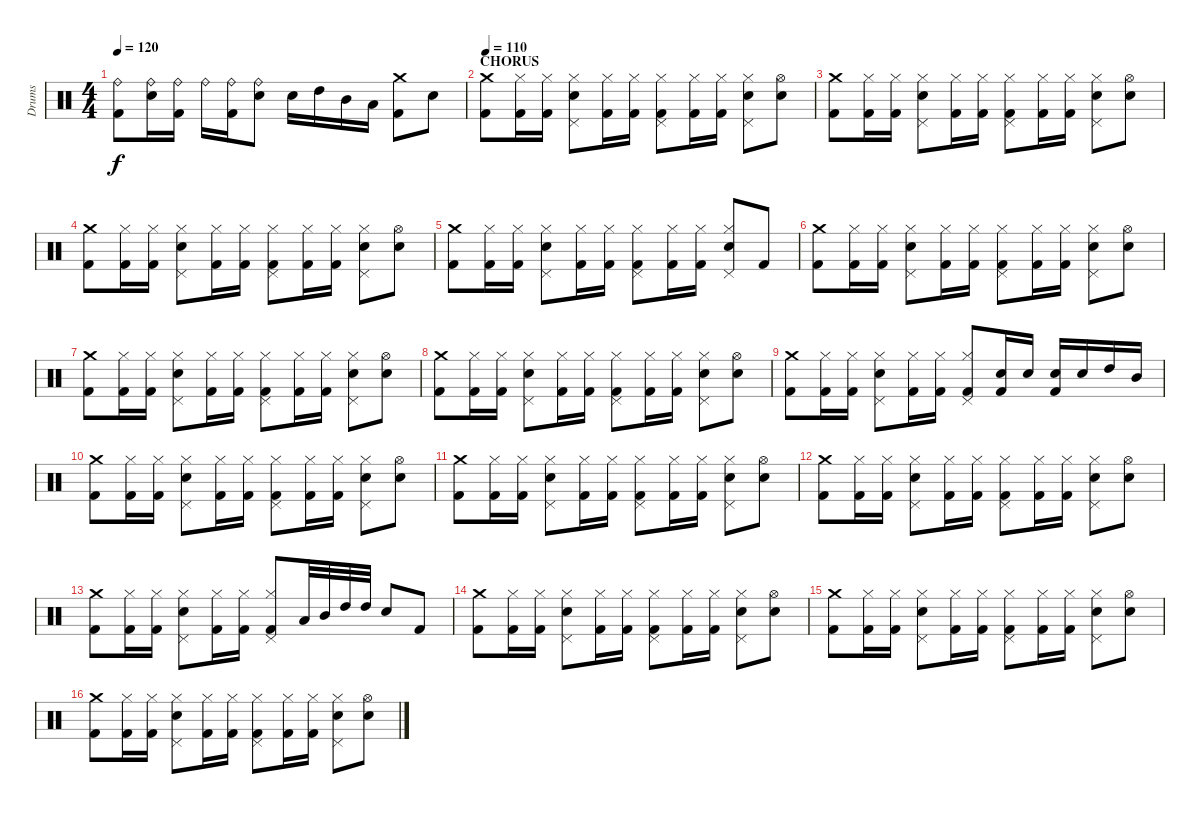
\track ("Drums" "Drums") {instrument percussion}
\staff {score}
\articulation defaults
\ts (4 4)
\tempo 120
\clef neutral
\ks c
("Kick (hit) 2" "Ride (bell)").8{dy f} ("Snare (hit) 2" "Ride (bell)").16 ("Kick (hit) 2" "Ride (bell)").16 "Ride (bell)".16 ("Kick (hit) 2" "Ride (bell)").16 ("Snare (hit) 2" "Ride (bell)").8 "Snare (hit) 2".16 "High Tom (hit)".16 "Mid Tom (hit)".16 "Low Tom (hit)".16 ("Crash medium (hit)" "Kick (hit) 2").8 "Snare (hit) 2".8 |
\section ("" "CHORUS")
\tempo 110
("Crash medium (hit)" "Kick (hit) 2").8 ("Kick (hit) 2" "Hi-Hat (closed)").16 ("Kick (hit) 2" "Hi-Hat (closed)").16 ("Snare (hit) 2" "Pedal Hi-Hat (hit)" "Hi-Hat (closed)").8 ("Kick (hit) 2" "Hi-Hat (closed)").16 ("Kick (hit) 2" "Hi-Hat (closed)").16 ("Kick (hit) 2" "Pedal Hi-Hat (hit)" "Hi-Hat (closed)").8 ("Kick (hit) 2" "Hi-Hat (closed)").16 ("Kick (hit) 2" "Hi-Hat (closed)").16 ("Snare (hit) 2" "Pedal Hi-Hat (hit)" "Hi-Hat (closed)").8 ("Snare (hit) 2" "Hi-Hat (open)").8 |
("Crash medium (hit)" "Kick (hit) 2").8 ("Kick (hit) 2" "Hi-Hat (closed)").16 ("Kick (hit) 2" "Hi-Hat (closed)").16 ("Snare (hit) 2" "Pedal Hi-Hat (hit)" "Hi-Hat (closed)").8 ("Kick (hit) 2" "Hi-Hat (closed)").16 ("Kick (hit) 2" "Hi-Hat (closed)").16 ("Kick (hit) 2" "Pedal Hi-Hat (hit)" "Hi-Hat (closed)").8 ("Kick (hit) 2" "Hi-Hat (closed)").16 ("Kick (hit) 2" "Hi-Hat (closed)").16 ("Snare (hit) 2" "Pedal Hi-Hat (hit)" "Hi-Hat (closed)").8 ("Snare (hit) 2" "Hi-Hat (open)").8 |
("Crash medium (hit)" "Kick (hit) 2").8 ("Kick (hit) 2" "Hi-Hat (closed)").16 ("Kick (hit) 2" "Hi-Hat (closed)").16 ("Snare (hit) 2" "Pedal Hi-Hat (hit)" "Hi-Hat (closed)").8 ("Kick (hit) 2" "Hi-Hat (closed)").16 ("Kick (hit) 2" "Hi-Hat (closed)").16 ("Kick (hit) 2" "Pedal Hi-Hat (hit)" "Hi-Hat (closed)").8 ("Kick (hit) 2" "Hi-Hat (closed)").16 ("Kick (hit) 2" "Hi-Hat (closed)").16 ("Snare (hit) 2" "Pedal Hi-Hat (hit)" "Hi-Hat (closed)").8 ("Snare (hit) 2" "Hi-Hat (open)").8 |
("Crash medium (hit)" "Kick (hit) 2").8 ("Kick (hit) 2" "Hi-Hat (closed)").16 ("Kick (hit) 2" "Hi-Hat (closed)").16 ("Snare (hit) 2" "Pedal Hi-Hat (hit)" "Hi-Hat (closed)").8 ("Kick (hit) 2" "Hi-Hat (closed)").16 ("Kick (hit) 2" "Hi-Hat (closed)").16 ("Kick (hit) 2" "Pedal Hi-Hat (hit)" "Hi-Hat (closed)").8 ("Kick (hit) 2" "Hi-Hat (closed)").16 ("Kick (hit) 2" "Hi-Hat (closed)").16 ("Snare (hit) 2" "Pedal Hi-Hat (hit)" "Hi-Hat (closed)").8 "Kick (hit) 2".8 |
("Crash medium (hit)" "Kick (hit) 2").8 ("Kick (hit) 2" "Hi-Hat (closed)").16 ("Kick (hit) 2" "Hi-Hat (closed)").16 ("Snare (hit) 2" "Pedal Hi-Hat (hit)" "Hi-Hat (closed)").8 ("Kick (hit) 2" "Hi-Hat (closed)").16 ("Kick (hit) 2" "Hi-Hat (closed)").16 ("Kick (hit) 2" "Pedal Hi-Hat (hit)" "Hi-Hat (closed)").8 ("Kick (hit) 2" "Hi-Hat (closed)").16 ("Kick (hit) 2" "Hi-Hat (closed)").16 ("Snare (hit) 2" "Pedal Hi-Hat (hit)" "Hi-Hat (closed)").8 ("Snare (hit) 2" "Hi-Hat (open)").8 |
("Crash medium (hit)" "Kick (hit) 2").8 ("Kick (hit) 2" "Hi-Hat (closed)").16 ("Kick (hit) 2" "Hi-Hat (closed)").16 ("Snare (hit) 2" "Pedal Hi-Hat (hit)" "Hi-Hat (closed)").8 ("Kick (hit) 2" "Hi-Hat (closed)").16 ("Kick (hit) 2" "Hi-Hat (closed)").16 ("Kick (hit) 2" "Pedal Hi-Hat (hit)" "Hi-Hat (closed)").8 ("Kick (hit) 2" "Hi-Hat (closed)").16 ("Kick (hit) 2" "Hi-Hat (closed)").16 ("Snare (hit) 2" "Pedal Hi-Hat (hit)" "Hi-Hat (closed)").8 ("Snare (hit) 2" "Hi-Hat (open)").8 |
("Crash medium (hit)" "Kick (hit) 2").8 ("Kick (hit) 2" "Hi-Hat (closed)").16 ("Kick (hit) 2" "Hi-Hat (closed)").16 ("Snare (hit) 2" "Pedal Hi-Hat (hit)" "Hi-Hat (closed)").8 ("Kick (hit) 2" "Hi-Hat (closed)").16 ("Kick (hit) 2" "Hi-Hat (closed)").16 ("Kick (hit) 2" "Pedal Hi-Hat (hit)" "Hi-Hat (closed)").8 ("Kick (hit) 2" "Hi-Hat (closed)").16 ("Kick (hit) 2" "Hi-Hat (closed)").16 ("Snare (hit) 2" "Pedal Hi-Hat (hit)" "Hi-Hat (closed)").8 ("Snare (hit) 2" "Hi-Hat (open)").8 |
("Crash medium (hit)" "Kick (hit) 2").8 ("Kick (hit) 2" "Hi-Hat (closed)").16 ("Kick (hit) 2" "Hi-Hat (closed)").16 ("Snare (hit) 2" "Pedal Hi-Hat (hit)" "Hi-Hat (closed)").8 ("Kick (hit) 2" "Hi-Hat (closed)").16 ("Kick (hit) 2" "Hi-Hat (closed)").16 ("Kick (hit) 2" "Pedal Hi-Hat (hit)" "Hi-Hat (closed)").8 ("Snare (hit) 2" "Kick (hit) 2").16 "Snare (hit) 2".16 ("Snare (hit) 2" "Kick (hit) 2").16 "Snare (hit) 2".16 "High Tom (hit)".16 "Mid Tom (hit)".16 |
("Crash medium (hit)" "Kick (hit) 2").8 ("Kick (hit) 2" "Hi-Hat (closed)").16 ("Kick (hit) 2" "Hi-Hat (closed)").16 ("Snare (hit) 2" "Pedal Hi-Hat (hit)" "Hi-Hat (closed)").8 ("Kick (hit) 2" "Hi-Hat (closed)").16 ("Kick (hit) 2" "Hi-Hat (closed)").16 ("Kick (hit) 2" "Pedal Hi-Hat (hit)" "Hi-Hat (closed)").8 ("Kick (hit) 2" "Hi-Hat (closed)").16 ("Kick (hit) 2" "Hi-Hat (closed)").16 ("Snare (hit) 2" "Pedal Hi-Hat (hit)" "Hi-Hat (closed)").8 ("Snare (hit) 2" "Hi-Hat (open)").8 |
("Crash medium (hit)" "Kick (hit) 2").8 ("Kick (hit) 2" "Hi-Hat (closed)").16 ("Kick (hit) 2" "Hi-Hat (closed)").16 ("Snare (hit) 2" "Pedal Hi-Hat (hit)" "Hi-Hat (closed)").8 ("Kick (hit) 2" "Hi-Hat (closed)").16 ("Kick (hit) 2" "Hi-Hat (closed)").16 ("Kick (hit) 2" "Pedal Hi-Hat (hit)" "Hi-Hat (closed)").8 ("Kick (hit) 2" "Hi-Hat (closed)").16 ("Kick (hit) 2" "Hi-Hat (closed)").16 ("Snare (hit) 2" "Pedal Hi-Hat (hit)" "Hi-Hat (closed)").8 ("Snare (hit) 2" "Hi-Hat (open)").8 |
("Crash medium (hit)" "Kick (hit) 2").8 ("Kick (hit) 2" "Hi-Hat (closed)").16 ("Kick (hit) 2" "Hi-Hat (closed)").16 ("Snare (hit) 2" "Pedal Hi-Hat (hit)" "Hi-Hat (closed)").8 ("Kick (hit) 2" "Hi-Hat (closed)").16 ("Kick (hit) 2" "Hi-Hat (closed)").16 ("Kick (hit) 2" "Pedal Hi-Hat (hit)" "Hi-Hat (closed)").8 ("Kick (hit) 2" "Hi-Hat (closed)").16 ("Kick (hit) 2" "Hi-Hat (closed)").16 ("Snare (hit) 2" "Pedal Hi-Hat (hit)" "Hi-Hat (closed)").8 ("Snare (hit) 2" "Hi-Hat (open)").8 |
("Crash medium (hit)" "Kick (hit) 2").8 ("Kick (hit) 2" "Hi-Hat (closed)").16 ("Kick (hit) 2" "Hi-Hat (closed)").16 ("Snare (hit) 2" "Pedal Hi-Hat (hit)" "Hi-Hat (closed)").8 ("Kick (hit) 2" "Hi-Hat (closed)").16 ("Kick (hit) 2" "Hi-Hat (closed)").16 ("Kick (hit) 2" "Pedal Hi-Hat (hit)" "Hi-Hat (closed)").8 "Low Tom (hit)".32 "Mid Tom (hit)".32 "High Tom (hit)".32 "High Tom (hit)".32 "Snare (hit) 2".8 "Kick (hit) 2".8 |
("Crash medium (hit)" "Kick (hit) 2").8 ("Kick (hit) 2" "Hi-Hat (closed)").16 ("Kick (hit) 2" "Hi-Hat (closed)").16 ("Snare (hit) 2" "Pedal Hi-Hat (hit)" "Hi-Hat (closed)").8 ("Kick (hit) 2" "Hi-Hat (closed)").16 ("Kick (hit) 2" "Hi-Hat (closed)").16 ("Kick (hit) 2" "Pedal Hi-Hat (hit)" "Hi-Hat (closed)").8 ("Kick (hit) 2" "Hi-Hat (closed)").16 ("Kick (hit) 2" "Hi-Hat (closed)").16 ("Snare (hit) 2" "Pedal Hi-Hat (hit)" "Hi-Hat (closed)").8 ("Snare (hit) 2" "Hi-Hat (open)").8 |
("Crash medium (hit)" "Kick (hit) 2").8 ("Kick (hit) 2" "Hi-Hat (closed)").16 ("Kick (hit) 2" "Hi-Hat (closed)").16 ("Snare (hit) 2" "Pedal Hi-Hat (hit)" "Hi-Hat (closed)").8 ("Kick (hit) 2" "Hi-Hat (closed)").16 ("Kick (hit) 2" "Hi-Hat (closed)").16 ("Kick (hit) 2" "Pedal Hi-Hat (hit)" "Hi-Hat (closed)").8 ("Kick (hit) 2" "Hi-Hat (closed)").16 ("Kick (hit) 2" "Hi-Hat (closed)").16 ("Snare (hit) 2" "Pedal Hi-Hat (hit)" "Hi-Hat (closed)").8 ("Snare (hit) 2" "Hi-Hat (open)").8 |
("Crash medium (hit)" "Kick (hit) 2").8 ("Kick (hit) 2" "Hi-Hat (closed)").16 ("Kick (hit) 2" "Hi-Hat (closed)").16 ("Snare (hit) 2" "Pedal Hi-Hat (hit)" "Hi-Hat (closed)").8 ("Kick (hit) 2" "Hi-Hat (closed)").16 ("Kick (hit) 2" "Hi-Hat (closed)").16 ("Kick (hit) 2" "Pedal Hi-Hat (hit)" "Hi-Hat (closed)").8 ("Kick (hit) 2" "Hi-Hat (closed)").16 ("Kick (hit) 2" "Hi-Hat (closed)").16 ("Snare (hit) 2" "Pedal Hi-Hat (hit)" "Hi-Hat (closed)").8 ("Snare (hit) 2" "Hi-Hat (open)").8
